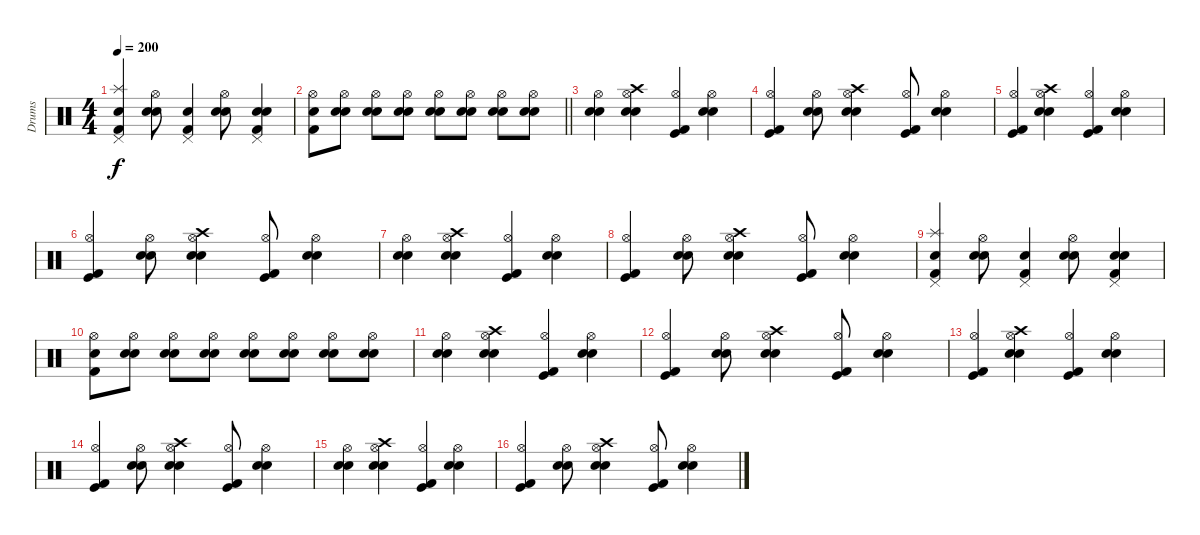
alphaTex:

\track ("Drums" "Drums") {instrument percussion}
\staff {score}
\articulation defaults
\ts (4 4)
\tempo 200
\clef neutral
\ks c
("Pedal Hi-Hat (hit)" "Splash (hit)" "Snare (hit) 2" "Kick (hit) 2").4{dy f} ("Hi-Hat (open)" "Snare (hit) 2" "Electric Snare (hit)").8 ("Pedal Hi-Hat (hit)" "Snare (hit) 2" "Kick (hit) 2").4 ("Hi-Hat (open)" "Snare (hit) 2" "Electric Snare (hit)").8 ("Pedal Hi-Hat (hit)" "Snare (hit) 2" "Electric Snare (hit)" "Kick (hit) 2").4 |
\barLineRight lightlight
("Hi-Hat (open)" "Snare (hit) 2" "Kick (hit) 2").8 ("Hi-Hat (open)" "Snare (hit) 2" "Electric Snare (hit)").8 ("Hi-Hat (open)" "Snare (hit) 2" "Electric Snare (hit)").8 ("Hi-Hat (open)" "Snare (hit) 2" "Electric Snare (hit)").8 ("Hi-Hat (open)" "Snare (hit) 2" "Electric Snare (hit)").8 ("Hi-Hat (open)" "Snare (hit) 2" "Electric Snare (hit)").8 ("Hi-Hat (open)" "Snare (hit) 2" "Electric Snare (hit)").8 ("Hi-Hat (open)" "Snare (hit) 2" "Electric Snare (hit)").8 |
("Hi-Hat (open)" "Snare (hit) 2" "Electric Snare (hit)").4 ("Hi-Hat (open)" "Crash high (hit)" "Snare (hit) 2" "Electric Snare (hit)").4 ("Hi-Hat (open)" "Kick (hit)" "Kick (hit) 2").4 ("Hi-Hat (open)" "Snare (hit) 2" "Electric Snare (hit)").4 |
("Hi-Hat (open)" "Kick (hit)" "Kick (hit) 2").4 ("Hi-Hat (open)" "Snare (hit) 2" "Electric Snare (hit)").8 ("Hi-Hat (open)" "Crash high (hit)" "Snare (hit) 2" "Electric Snare (hit)").4 ("Hi-Hat (open)" "Kick (hit)" "Kick (hit) 2").8 ("Hi-Hat (open)" "Snare (hit) 2" "Electric Snare (hit)").4 |
("Hi-Hat (open)" "Kick (hit)" "Kick (hit) 2").4 ("Hi-Hat (open)" "Crash high (hit)" "Snare (hit) 2" "Electric Snare (hit)").4 ("Hi-Hat (open)" "Kick (hit)" "Kick (hit) 2").4 ("Hi-Hat (open)" "Snare (hit) 2" "Electric Snare (hit)").4 |
("Hi-Hat (open)" "Kick (hit)" "Kick (hit) 2").4 ("Hi-Hat (open)" "Snare (hit) 2" "Electric Snare (hit)").8 ("Hi-Hat (open)" "Crash high (hit)" "Snare (hit) 2" "Electric Snare (hit)").4 ("Hi-Hat (open)" "Kick (hit)" "Kick (hit) 2").8 ("Hi-Hat (open)" "Snare (hit) 2" "Electric Snare (hit)").4 |
("Hi-Hat (open)" "Snare (hit) 2" "Electric Snare (hit)").4 ("Hi-Hat (open)" "Crash high (hit)" "Snare (hit) 2" "Electric Snare (hit)").4 ("Hi-Hat (open)" "Kick (hit)" "Kick (hit) 2").4 ("Hi-Hat (open)" "Snare (hit) 2" "Electric Snare (hit)").4 |
("Hi-Hat (open)" "Kick (hit)" "Kick (hit) 2").4 ("Hi-Hat (open)" "Snare (hit) 2" "Electric Snare (hit)").8 ("Hi-Hat (open)" "Crash high (hit)" "Snare (hit) 2" "Electric Snare (hit)").4 ("Hi-Hat (open)" "Kick (hit)" "Kick (hit) 2").8 ("Hi-Hat (open)" "Snare (hit) 2" "Electric Snare (hit)").4 |
("Pedal Hi-Hat (hit)" "Splash (hit)" "Snare (hit) 2" "Kick (hit) 2").4 ("Hi-Hat (open)" "Snare (hit) 2" "Electric Snare (hit)").8 ("Pedal Hi-Hat (hit)" "Snare (hit) 2" "Kick (hit) 2").4 ("Hi-Hat (open)" "Snare (hit) 2" "Electric Snare (hit)").8 ("Pedal Hi-Hat (hit)" "Snare (hit) 2" "Electric Snare (hit)" "Kick (hit) 2").4 |
("Hi-Hat (open)" "Snare (hit) 2" "Kick (hit) 2").8 ("Hi-Hat (open)" "Snare (hit) 2" "Electric Snare (hit)").8 ("Hi-Hat (open)" "Snare (hit) 2" "Electric Snare (hit)").8 ("Hi-Hat (open)" "Snare (hit) 2" "Electric Snare (hit)").8 ("Hi-Hat (open)" "Snare (hit) 2" "Electric Snare (hit)").8 ("Hi-Hat (open)" "Snare (hit) 2" "Electric Snare (hit)").8 ("Hi-Hat (open)" "Snare (hit) 2" "Electric Snare (hit)").8 ("Hi-Hat (open)" "Snare (hit) 2" "Electric Snare (hit)").8 |
("Hi-Hat (open)" "Snare (hit) 2" "Electric Snare (hit)").4 ("Hi-Hat (open)" "Crash high (hit)" "Snare (hit) 2" "Electric Snare (hit)").4 ("Hi-Hat (open)" "Kick (hit)" "Kick (hit) 2").4 ("Hi-Hat (open)" "Snare (hit) 2" "Electric Snare (hit)").4 |
("Hi-Hat (open)" "Kick (hit)" "Kick (hit) 2").4 ("Hi-Hat (open)" "Snare (hit) 2" "Electric Snare (hit)").8 ("Hi-Hat (open)" "Crash high (hit)" "Snare (hit) 2" "Electric Snare (hit)").4 ("Hi-Hat (open)" "Kick (hit)" "Kick (hit) 2").8 ("Hi-Hat (open)" "Snare (hit) 2" "Electric Snare (hit)").4 |
("Hi-Hat (open)" "Kick (hit)" "Kick (hit) 2").4 ("Hi-Hat (open)" "Crash high (hit)" "Snare (hit) 2" "Electric Snare (hit)").4 ("Hi-Hat (open)" "Kick (hit)" "Kick (hit) 2").4 ("Hi-Hat (open)" "Snare (hit) 2" "Electric Snare (hit)").4 |
("Hi-Hat (open)" "Kick (hit)" "Kick (hit) 2").4 ("Hi-Hat (open)" "Snare (hit) 2" "Electric Snare (hit)").8 ("Hi-Hat (open)" "Crash high (hit)" "Snare (hit) 2" "Electric Snare (hit)").4 ("Hi-Hat (open)" "Kick (hit)" "Kick (hit) 2").8 ("Hi-Hat (open)" "Snare (hit) 2" "Electric Snare (hit)").4 |
("Hi-Hat (open)" "Snare (hit) 2" "Electric Snare (hit)").4 ("Hi-Hat (open)" "Crash high (hit)" "Snare (hit) 2" "Electric Snare (hit)").4 ("Hi-Hat (open)" "Kick (hit)" "Kick (hit) 2").4 ("Hi-Hat (open)" "Snare (hit) 2" "Electric Snare (hit)").4 |
("Hi-Hat (open)" "Kick (hit)" "Kick (hit) 2").4 ("Hi-Hat (open)" "Snare (hit) 2" "Electric Snare (hit)").8 ("Hi-Hat (open)" "Crash high (hit)" "Snare (hit) 2" "Electric Snare (hit)").4 ("Hi-Hat (open)" "Kick (hit)" "Kick (hit) 2").8 ("Hi-Hat (open)" "Snare (hit) 2" "Electric Snare (hit)").4
